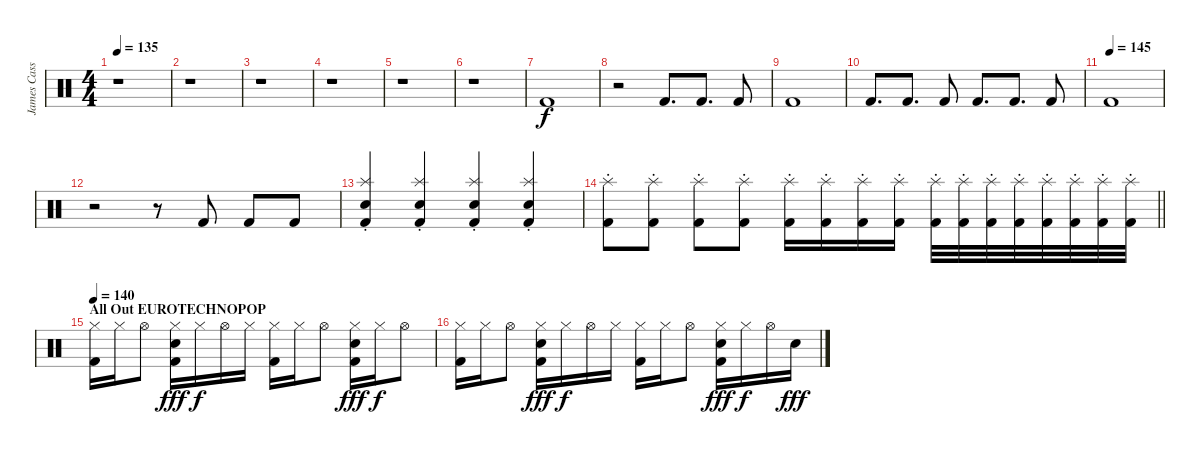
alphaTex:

\track ("James Cassells" "James Cass") {instrument percussion}
\staff {score}
\articulation defaults
\ts (4 4)
\tempo 135
\clef neutral
\ks c
r.1{dy f} |
r.1 |
r.1 |
r.1 |
r.1 |
r.1 |
"Kick (hit) 2".1 |
r.2 "Kick (hit) 2".8{d} "Kick (hit) 2".8{d} "Kick (hit) 2".8 |
"Kick (hit) 2".1 |
"Kick (hit) 2".8{d} "Kick (hit) 2".8{d} "Kick (hit) 2".8 "Kick (hit) 2".8{d} "Kick (hit) 2".8{d} "Kick (hit) 2".8 |
\tempo (145)
"Kick (hit) 2".1 |
r.2 r.8 "Kick (hit) 2".8 "Kick (hit) 2".8 "Kick (hit) 2".8 |
("Splash (hit)"{st} "Electric Snare (hit)"{st} "Kick (hit) 2").4 ("Splash (hit)"{st} "Electric Snare (hit)"{st} "Kick (hit) 2").4 ("Splash (hit)"{st} "Electric Snare (hit)"{st} "Kick (hit) 2").4 ("Splash (hit)"{st} "Electric Snare (hit)"{st} "Kick (hit) 2").4 |
\barLineRight lightlight
("Splash (hit)"{st} "Kick (hit) 2"{st}).8 ("Splash (hit)"{st} "Kick (hit) 2").8 ("Splash (hit)"{st} "Kick (hit) 2").8 ("Splash (hit)"{st} "Kick (hit) 2").8 ("Splash (hit)"{st} "Kick (hit) 2").16 ("Splash (hit)"{st} "Kick (hit) 2").16 ("Splash (hit)"{st} "Kick (hit) 2").16 ("Splash (hit)"{st} "Kick (hit) 2").16 ("Splash (hit)"{st} "Kick (hit) 2").32 ("Splash (hit)"{st} "Kick (hit) 2").32 ("Splash (hit)"{st} "Kick (hit) 2").32 ("Splash (hit)"{st} "Kick (hit) 2").32 ("Splash (hit)"{st} "Kick (hit) 2").32 ("Splash (hit)"{st} "Kick (hit) 2").32 ("Splash (hit)"{st} "Kick (hit) 2").32 ("Splash (hit)"{st} "Kick (hit) 2").32 |
\section ("" "All Out EUROTECHNOPOP")
\tempo 140
("Hi-Hat (closed)" "Kick (hit) 2").16 "Hi-Hat (closed)".16 "Hi-Hat (open)".8 ("Hi-Hat (closed)" "Hand Clap (hit)" "Kick (hit) 2").16{dy fff} "Hi-Hat (closed)".16{dy f} "Hi-Hat (open)".16 "Hi-Hat (closed)".16 ("Hi-Hat (closed)" "Kick (hit) 2").16 "Hi-Hat (closed)".16 "Hi-Hat (open)".8 ("Hi-Hat (closed)" "Hand Clap (hit)" "Kick (hit) 2").16{dy fff} "Hi-Hat (closed)".16{dy f} "Hi-Hat (open)".8 |
("Hi-Hat (closed)" "Kick (hit) 2").16 "Hi-Hat (closed)".16 "Hi-Hat (open)".8 ("Hi-Hat (closed)" "Hand Clap (hit)" "Kick (hit) 2").16{dy fff} "Hi-Hat (closed)".16{dy f} "Hi-Hat (open)".16 "Hi-Hat (closed)".16 ("Hi-Hat (closed)" "Kick (hit) 2").16 "Hi-Hat (closed)".16 "Hi-Hat (open)".8 ("Hi-Hat (closed)" "Hand Clap (hit)" "Kick (hit) 2").16{dy fff} "Hi-Hat (closed)".16{dy f} "Hi-Hat (open)".16 "Hand Clap (hit)".16{dy fff}
